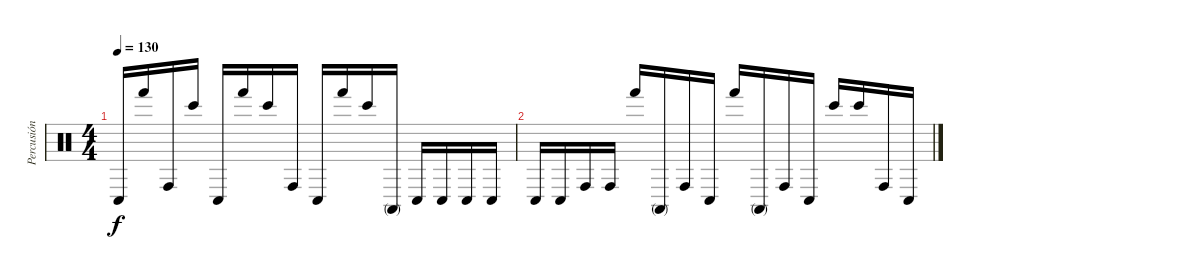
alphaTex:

\track ("Percusión" "Percusión") {instrument percussion}
\staff {score}
\articulation defaults
\ts (4 4)
\tempo 130
\clef neutral
\ks c "Conga low (hit)".16{dy f} "Hand (hit)".16 "Conga high (hit)".16 "Bongo High (hit)".16 "Conga low (hit)".16 "Hand (hit)".16 "Bongo High (hit)".16 "Conga high (hit)".16 "Conga low (hit)".16 "Hand (hit)".16 "Bongo High (hit)".16 "Conga high (mute)".16 "Conga low (hit)".16 "Conga low (hit)".16 "Conga low (hit)".16 "Conga low (hit)".16
|
"Conga low (hit)".16 "Conga low (hit)".16 "Conga high (hit)".16 "Conga high (hit)".16 "Hand (hit)".16 "Conga high (mute)".16 "Conga high (hit)".16 "Conga low (hit)".16 "Hand (hit)".16 "Conga high (mute)".16 "Conga high (hit)".16 "Conga low (hit)".16 "Bongo High (hit)".16 "Bongo High (hit)".16 "Conga high (hit)".16 "Conga low (hit)".16
